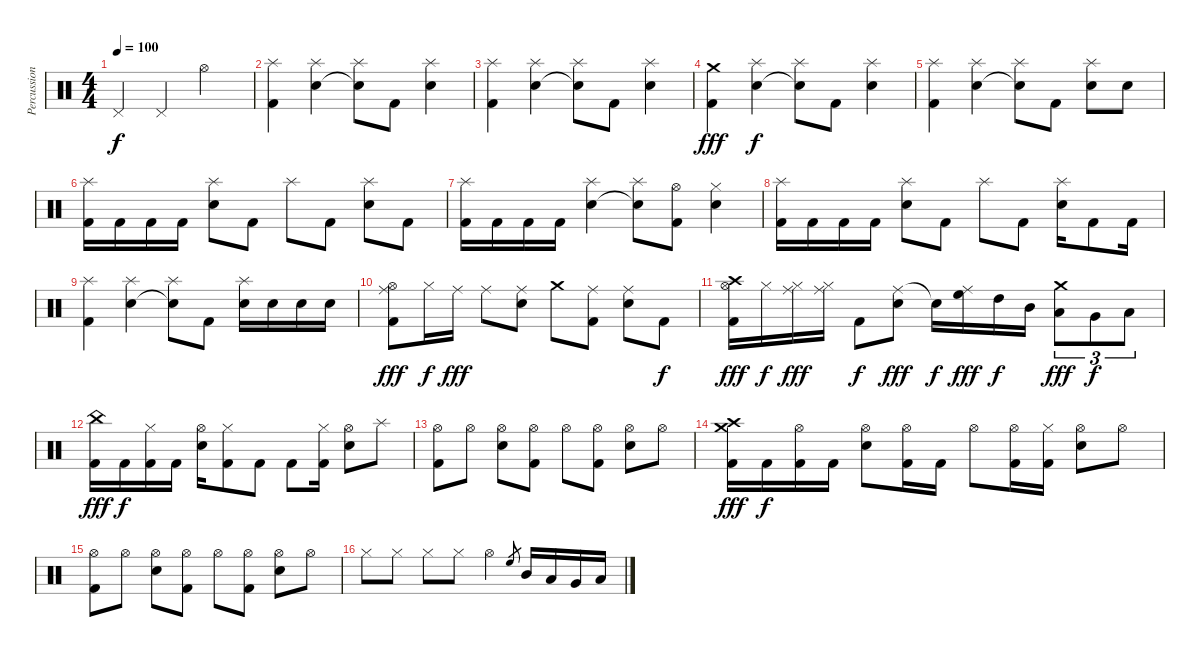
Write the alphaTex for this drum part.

\track ("Percussion" "Percussion") {instrument percussion}
\staff {score}
\articulation defaults
\ts (4 4)
\tempo 100
\clef neutral
\ks c "Pedal Hi-Hat (hit)".4{dy f} "Pedal Hi-Hat (hit)".4 "Hi-Hat (open)".2
|
("Splash (hit)" "Kick (hit) 2").4 ("Splash (hit)" "Electric Snare (hit)").4 ("Splash (hit)" "Snare (hit)"{t}).8 "Kick (hit) 2".8 ("Splash (hit)" "Electric Snare (hit)").4 |
("Splash (hit)" "Kick (hit) 2").4 ("Splash (hit)" "Electric Snare (hit)").4 ("Splash (hit)" "Snare (hit)"{t}).8 "Kick (hit) 2".8 ("Splash (hit)" "Electric Snare (hit)").4 |
("Crash medium (hit)" "Kick (hit) 2").4{dy fff} ("Splash (hit)" "Electric Snare (hit)").4{dy f} ("Splash (hit)" "Snare (hit)"{t}).8 "Kick (hit) 2".8 ("Splash (hit)" "Electric Snare (hit)").4 |
("Splash (hit)" "Kick (hit) 2").4 ("Splash (hit)" "Electric Snare (hit)").4 ("Splash (hit)" "Snare (hit)"{t}).8 "Kick (hit) 2".8 ("Splash (hit)" "Electric Snare (hit)").8 "Electric Snare (hit)".8 |
("Splash (hit)" "Kick (hit) 2").16 "Kick (hit) 2".16 "Kick (hit) 2".16 "Kick (hit) 2".16 ("Splash (hit)" "Electric Snare (hit)").8 "Kick (hit) 2".8 "Splash (hit)".8 "Kick (hit) 2".8 ("Splash (hit)" "Electric Snare (hit)").8 "Kick (hit) 2".8 |
("Splash (hit)" "Kick (hit) 2").16 "Kick (hit) 2".16 "Kick (hit) 2".16 "Kick (hit) 2".16 ("Splash (hit)" "Electric Snare (hit)").4 ("Splash (hit)" "Snare (hit)"{t}).8 ("Hi-Hat (open)" "Kick (hit) 2").8 ("Hi-Hat (closed)" "Electric Snare (hit)").4 |
("Splash (hit)" "Kick (hit) 2").16 "Kick (hit) 2".16 "Kick (hit) 2".16 "Kick (hit) 2".16 ("Splash (hit)" "Electric Snare (hit)").8 "Kick (hit) 2".8 "Splash (hit)".8 "Kick (hit) 2".8 ("Splash (hit)" "Electric Snare (hit)").16 "Kick (hit) 2".8 "Kick (hit) 2".16 |
("Splash (hit)" "Kick (hit) 2").4 ("Splash (hit)" "Electric Snare (hit)").4 ("Splash (hit)" "Snare (hit)"{t}).8 "Kick (hit) 2".8 ("Splash (hit)" "Electric Snare (hit)").16 "Electric Snare (hit)".16 "Electric Snare (hit)".16 "Electric Snare (hit)".16 |
("Ride (middle)" "Hi-Hat (open)" "Kick (hit) 2").8{dy fff} "Hi-Hat (closed)".16{dy f} "Ride (middle)".16{dy fff} "Ride (middle)".8 ("Ride (middle)" "Electric Snare (hit)").8 "Crash medium (hit)".8 ("Ride (middle)" "Kick (hit) 2").8 ("Ride (middle)" "Electric Snare (hit)").8 "Kick (hit) 2".8{dy f} |
("Crash high (hit)" "Hi-Hat (open)" "Kick (hit) 2").16{dy fff} "Hi-Hat (closed)".16{dy f} ("Ride (middle)" "Hi-Hat (closed)").16{dy fff} ("Ride (middle)" "Hi-Hat (closed)").16 "Kick (hit) 2".8{dy f} ("Ride (middle)" "Electric Snare (hit)").8{dy fff} "Electric Snare (hit)"{t}.16{dy f} ("Ride (middle)" "High Floor Tom (hit)").16{dy fff} "High Tom (hit)".16{dy f} "Mid Tom (hit)".16 ("Crash medium (hit)" "Low Tom (hit)").8{tu (3 2) dy fff} "Very Low Tom (hit)".8{tu (3 2) dy f} "Low Floor Tom (hit)".8{tu (3 2)} |
("China (hit)" "Kick (hit) 2").16{dy fff} "Kick (hit) 2".16{dy f} ("Hi-Hat (closed)" "Kick (hit) 2").16 "Kick (hit) 2".16 ("Hi-Hat (open)" "Electric Snare (hit)").16 ("Hi-Hat (closed)" "Kick (hit) 2").8 "Kick (hit) 2".8 "Kick (hit) 2".8 ("Hi-Hat (closed)" "Kick (hit) 2").16 ("Hi-Hat (open)" "Electric Snare (hit)").8 "Splash (hit)".8 |
("Hi-Hat (open)" "Kick (hit) 2").8 "Hi-Hat (open)".8 ("Hi-Hat (open)" "Electric Snare (hit)").8 ("Hi-Hat (open)" "Kick (hit) 2").8 "Hi-Hat (open)".8 ("Hi-Hat (open)" "Kick (hit) 2").8 ("Hi-Hat (open)" "Electric Snare (hit)").8 "Hi-Hat (open)".8 |
("Crash medium (hit)" "Crash high (hit)" "Kick (hit) 2").16{dy fff} "Kick (hit) 2".16{dy f} ("Hi-Hat (open)" "Kick (hit) 2").16 "Kick (hit) 2".16 ("Hi-Hat (open)" "Electric Snare (hit)").8 ("Hi-Hat (open)" "Kick (hit) 2").16 "Kick (hit) 2".16 "Hi-Hat (open)".8 ("Hi-Hat (open)" "Kick (hit) 2").16 ("Hi-Hat (closed)" "Kick (hit) 2").16 ("Hi-Hat (open)" "Electric Snare (hit)").8 "Hi-Hat (open)".8 |
("Hi-Hat (open)" "Kick (hit) 2").8 "Hi-Hat (open)".8 ("Hi-Hat (open)" "Electric Snare (hit)").8 ("Hi-Hat (open)" "Kick (hit) 2").8 "Hi-Hat (open)".8 ("Hi-Hat (open)" "Kick (hit) 2").8 ("Hi-Hat (open)" "Electric Snare (hit)").8 "Hi-Hat (open)".8 |
"Hi-Hat (closed)".8 "Hi-Hat (closed)".8 "Hi-Hat (closed)".8 "Hi-Hat (closed)".8 "Hi-Hat (open)".4 "High Floor Tom (hit)".8{gr} "Mid Tom (hit)".16 "Low Tom (hit)".16 "Very Low Tom (hit)".16 "Low Floor Tom (hit)".16
